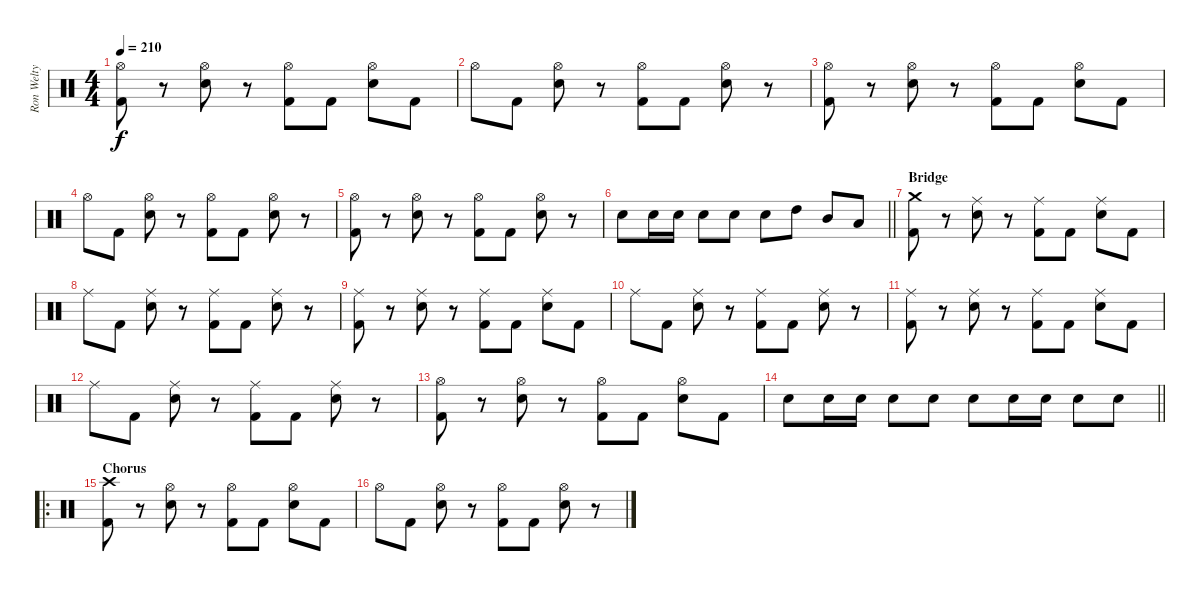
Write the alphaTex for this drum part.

\track ("Ron Welty" "Ron Welty") {instrument percussion}
\staff {score}
\articulation defaults
\ts (4 4)
\tempo 210
\clef neutral
\ks c
("Hi-Hat (open)" "Kick (hit) 2").8{dy f} r.8 ("Hi-Hat (open)" "Electric Snare (hit)").8 r.8 ("Hi-Hat (open)" "Kick (hit) 2").8 "Kick (hit) 2".8 ("Hi-Hat (open)" "Electric Snare (hit)").8 "Kick (hit) 2".8 |
"Hi-Hat (open)".8 "Kick (hit) 2".8 ("Hi-Hat (open)" "Electric Snare (hit)").8 r.8 ("Hi-Hat (open)" "Kick (hit) 2").8 "Kick (hit) 2".8 ("Hi-Hat (open)" "Electric Snare (hit)").8 r.8 |
("Hi-Hat (open)" "Kick (hit) 2").8 r.8 ("Hi-Hat (open)" "Electric Snare (hit)").8 r.8 ("Hi-Hat (open)" "Kick (hit) 2").8 "Kick (hit) 2".8 ("Hi-Hat (open)" "Electric Snare (hit)").8 "Kick (hit) 2".8 |
"Hi-Hat (open)".8 "Kick (hit) 2".8 ("Hi-Hat (open)" "Electric Snare (hit)").8 r.8 ("Hi-Hat (open)" "Kick (hit) 2").8 "Kick (hit) 2".8 ("Hi-Hat (open)" "Electric Snare (hit)").8 r.8 |
("Hi-Hat (open)" "Kick (hit) 2").8 r.8 ("Hi-Hat (open)" "Electric Snare (hit)").8 r.8 ("Hi-Hat (open)" "Kick (hit) 2").8 "Kick (hit) 2".8 ("Hi-Hat (open)" "Electric Snare (hit)").8 r.8 |
\barLineRight lightlight "Electric Snare (hit)".8 "Electric Snare (hit)".16 "Electric Snare (hit)".16 "Electric Snare (hit)".8 "Electric Snare (hit)".8 "Electric Snare (hit)".8 "High Tom (hit)".8 "Mid Tom (hit)".8 "Low Tom (hit)".8
|
\section ("" "Bridge")
("Crash medium (hit)" "Kick (hit) 2").8 r.8 ("Ride (middle)" "Electric Snare (hit)").8 r.8 ("Ride (middle)" "Kick (hit) 2").8 "Kick (hit) 2".8 ("Ride (middle)" "Electric Snare (hit)").8 "Kick (hit) 2".8 |
"Ride (middle)".8 "Kick (hit) 2".8 ("Ride (middle)" "Electric Snare (hit)").8 r.8 ("Ride (middle)" "Kick (hit) 2").8 "Kick (hit) 2".8 ("Ride (middle)" "Electric Snare (hit)").8 r.8 |
("Ride (middle)" "Kick (hit) 2").8 r.8 ("Ride (middle)" "Electric Snare (hit)").8 r.8 ("Ride (middle)" "Kick (hit) 2").8 "Kick (hit) 2".8 ("Ride (middle)" "Electric Snare (hit)").8 "Kick (hit) 2".8 |
"Ride (middle)".8 "Kick (hit) 2".8 ("Ride (middle)" "Electric Snare (hit)").8 r.8 ("Ride (middle)" "Kick (hit) 2").8 "Kick (hit) 2".8 ("Ride (middle)" "Electric Snare (hit)").8 r.8 |
("Ride (middle)" "Kick (hit) 2").8 r.8 ("Ride (middle)" "Electric Snare (hit)").8 r.8 ("Ride (middle)" "Kick (hit) 2").8 "Kick (hit) 2".8 ("Ride (middle)" "Electric Snare (hit)").8 "Kick (hit) 2".8 |
"Ride (middle)".8 "Kick (hit) 2".8 ("Ride (middle)" "Electric Snare (hit)").8 r.8 ("Ride (middle)" "Kick (hit) 2").8 "Kick (hit) 2".8 ("Ride (middle)" "Electric Snare (hit)").8 r.8 |
("Hi-Hat (open)" "Kick (hit) 2").8 r.8 ("Hi-Hat (open)" "Electric Snare (hit)").8 r.8 ("Hi-Hat (open)" "Kick (hit) 2").8 "Kick (hit) 2".8 ("Hi-Hat (open)" "Electric Snare (hit)").8 "Kick (hit) 2".8 |
\barLineRight lightlight "Electric Snare (hit)".8 "Electric Snare (hit)".16 "Electric Snare (hit)".16 "Electric Snare (hit)".8 "Electric Snare (hit)".8 "Electric Snare (hit)".8 "Electric Snare (hit)".16 "Electric Snare (hit)".16 "Electric Snare (hit)".8 "Electric Snare (hit)".8
|
\ro
\section ("" "Chorus")
("Crash high (hit)" "Kick (hit) 2").8 r.8 ("Hi-Hat (open)" "Electric Snare (hit)").8 r.8 ("Hi-Hat (open)" "Kick (hit) 2").8 "Kick (hit) 2".8 ("Hi-Hat (open)" "Electric Snare (hit)").8 "Kick (hit) 2".8 |
"Hi-Hat (open)".8 "Kick (hit) 2".8 ("Hi-Hat (open)" "Electric Snare (hit)").8 r.8 ("Hi-Hat (open)" "Kick (hit) 2").8 "Kick (hit) 2".8 ("Hi-Hat (open)" "Electric Snare (hit)").8 r.8
